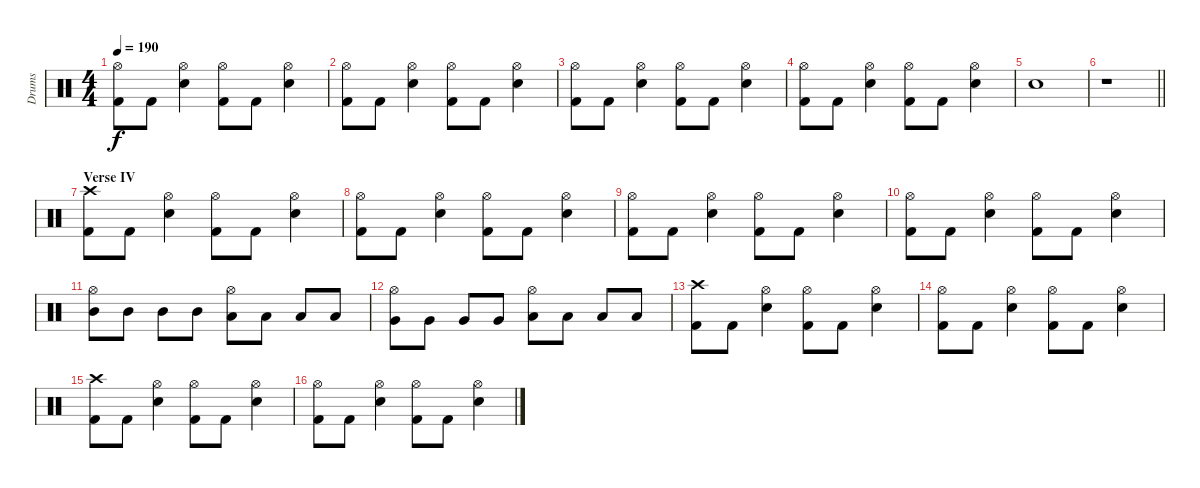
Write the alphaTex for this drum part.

\track ("Drums" "Drums") {instrument percussion}
\staff {score}
\articulation defaults
\ts (4 4)
\tempo 190
\clef neutral
\ks c
("Hi-Hat (open)" "Kick (hit) 2").8{dy f} "Kick (hit) 2".8 ("Hi-Hat (open)" "Snare (hit) 2").4 ("Hi-Hat (open)" "Kick (hit) 2").8 "Kick (hit) 2".8 ("Hi-Hat (open)" "Snare (hit) 2").4 |
("Hi-Hat (open)" "Kick (hit) 2").8 "Kick (hit) 2".8 ("Hi-Hat (open)" "Snare (hit) 2").4 ("Hi-Hat (open)" "Kick (hit) 2").8 "Kick (hit) 2".8 ("Hi-Hat (open)" "Snare (hit) 2").4 |
("Hi-Hat (open)" "Kick (hit) 2").8 "Kick (hit) 2".8 ("Hi-Hat (open)" "Snare (hit) 2").4 ("Hi-Hat (open)" "Kick (hit) 2").8 "Kick (hit) 2".8 ("Hi-Hat (open)" "Snare (hit) 2").4 |
("Hi-Hat (open)" "Kick (hit) 2").8 "Kick (hit) 2".8 ("Hi-Hat (open)" "Snare (hit) 2").4 ("Hi-Hat (open)" "Kick (hit) 2").8 "Kick (hit) 2".8 ("Hi-Hat (open)" "Snare (hit) 2").4 |
"Snare (hit) 2".1 |
\barLineRight lightlight
r.1 |
\section ("" "Verse IV")
("Crash high (hit)" "Kick (hit) 2").8 "Kick (hit) 2".8 ("Hi-Hat (open)" "Snare (hit) 2").4 ("Hi-Hat (open)" "Kick (hit) 2").8 "Kick (hit) 2".8 ("Hi-Hat (open)" "Snare (hit) 2").4 |
("Hi-Hat (open)" "Kick (hit) 2").8 "Kick (hit) 2".8 ("Hi-Hat (open)" "Snare (hit) 2").4 ("Hi-Hat (open)" "Kick (hit) 2").8 "Kick (hit) 2".8 ("Hi-Hat (open)" "Snare (hit) 2").4 |
("Hi-Hat (open)" "Kick (hit) 2").8 "Kick (hit) 2".8 ("Hi-Hat (open)" "Snare (hit) 2").4 ("Hi-Hat (open)" "Kick (hit) 2").8 "Kick (hit) 2".8 ("Hi-Hat (open)" "Snare (hit) 2").4 |
("Hi-Hat (open)" "Kick (hit) 2").8 "Kick (hit) 2".8 ("Hi-Hat (open)" "Snare (hit) 2").4 ("Hi-Hat (open)" "Kick (hit) 2").8 "Kick (hit) 2".8 ("Hi-Hat (open)" "Snare (hit) 2").4 |
("Hi-Hat (open)" "Mid Tom (hit)").8 "Mid Tom (hit)".8 "Mid Tom (hit)".8 "Mid Tom (hit)".8 ("Hi-Hat (open)" "Low Tom (hit)").8 "Low Tom (hit)".8 "Low Tom (hit)".8 "Low Tom (hit)".8 |
("Hi-Hat (open)" "Very Low Tom (hit)").8 "Very Low Tom (hit)".8 "Very Low Tom (hit)".8 "Very Low Tom (hit)".8 ("Hi-Hat (open)" "Low Floor Tom (hit)").8 "Low Floor Tom (hit)".8 "Low Floor Tom (hit)".8 "Low Floor Tom (hit)".8 |
("Crash high (hit)" "Kick (hit) 2").8 "Kick (hit) 2".8 ("Hi-Hat (open)" "Snare (hit) 2").4 ("Hi-Hat (open)" "Kick (hit) 2").8 "Kick (hit) 2".8 ("Hi-Hat (open)" "Snare (hit) 2").4 |
("Hi-Hat (open)" "Kick (hit) 2").8 "Kick (hit) 2".8 ("Hi-Hat (open)" "Snare (hit) 2").4 ("Hi-Hat (open)" "Kick (hit) 2").8 "Kick (hit) 2".8 ("Hi-Hat (open)" "Snare (hit) 2").4 |
("Crash high (hit)" "Kick (hit) 2").8 "Kick (hit) 2".8 ("Hi-Hat (open)" "Snare (hit) 2").4 ("Hi-Hat (open)" "Kick (hit) 2").8 "Kick (hit) 2".8 ("Hi-Hat (open)" "Snare (hit) 2").4 |
("Hi-Hat (open)" "Kick (hit) 2").8 "Kick (hit) 2".8 ("Hi-Hat (open)" "Snare (hit) 2").4 ("Hi-Hat (open)" "Kick (hit) 2").8 "Kick (hit) 2".8 ("Hi-Hat (open)" "Snare (hit) 2").4
